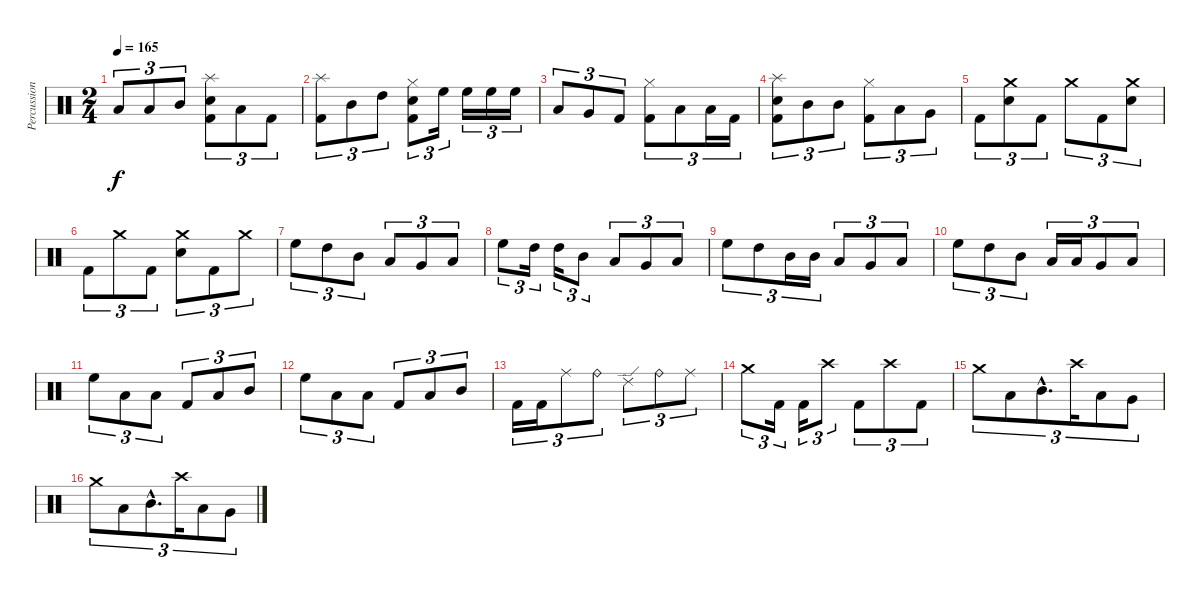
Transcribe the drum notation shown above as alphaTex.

\track ("Percussion" "Percussion") {instrument percussion}
\staff {score}
\articulation defaults
\ts (2 4)
\tempo 165
\clef neutral
\ks c "Low Tom (hit)".8{tu (3 2) dy f} "Low Tom (hit)".8{tu (3 2)} "Mid Tom (hit)".8{tu (3 2)}
("Splash (hit)" "Snare (hit) 2" "Kick (hit) 2").8{tu (3 2)} "Low Tom (hit)".8{tu (3 2)} "Kick (hit) 2".8{tu (3 2)} |
("Splash (hit)" "Kick (hit) 2").8{tu (3 2)} "Mid Tom (hit)".8{tu (3 2)} "High Tom (hit)".8{tu (3 2)} ("Hi-Hat (closed)" "Snare (hit) 2" "Kick (hit) 2").8{tu (3 2)} "High Floor Tom (hit)".16{tu (3 2)} "High Floor Tom (hit)".16{tu (3 2)} "High Floor Tom (hit)".16{tu (3 2)} "High Floor Tom (hit)".16{tu (3 2)} |
"Low Tom (hit)".8{tu (3 2)} "Very Low Tom (hit)".8{tu (3 2)} "Kick (hit) 2".8{tu (3 2)} ("Hi-Hat (closed)" "Kick (hit) 2").8{tu (3 2)} "Low Tom (hit)".8{tu (3 2)} "Low Tom (hit)".16{tu (3 2)} "Kick (hit) 2".16{tu (3 2)} |
("Splash (hit)" "Snare (hit) 2" "Kick (hit) 2").8{tu (3 2)} "Mid Tom (hit)".8{tu (3 2)} "Mid Tom (hit)".8{tu (3 2)} ("Hi-Hat (closed)" "Kick (hit) 2").8{tu (3 2)} "Low Tom (hit)".8{tu (3 2)} "Very Low Tom (hit)".8{tu (3 2)} |
"Kick (hit) 2".8{tu (3 2)} ("Crash medium (hit)" "Snare (hit) 2").8{tu (3 2)} "Kick (hit) 2".8{tu (3 2)} "Crash medium (hit)".8{tu (3 2)} "Kick (hit) 2".8{tu (3 2)} ("Crash medium (hit)" "Snare (hit) 2").8{tu (3 2)} |
"Kick (hit) 2".8{tu (3 2)} "Crash medium (hit)".8{tu (3 2)} "Kick (hit) 2".8{tu (3 2)} ("Crash medium (hit)" "Snare (hit) 2").8{tu (3 2)} "Kick (hit) 2".8{tu (3 2)} "Crash medium (hit)".8{tu (3 2)} |
"High Floor Tom (hit)".8{tu (3 2)} "High Tom (hit)".8{tu (3 2)} "Mid Tom (hit)".8{tu (3 2)} "Low Tom (hit)".8{tu (3 2)} "Very Low Tom (hit)".8{tu (3 2)} "Low Floor Tom (hit)".8{tu (3 2)} |
"High Floor Tom (hit)".8{tu (3 2)} "High Tom (hit)".16{tu (3 2)} "High Tom (hit)".16{tu (3 2)} "Mid Tom (hit)".8{tu (3 2)} "Low Tom (hit)".8{tu (3 2)} "Very Low Tom (hit)".8{tu (3 2)} "Low Floor Tom (hit)".8{tu (3 2)} |
"High Floor Tom (hit)".8{tu (3 2)} "High Tom (hit)".8{tu (3 2)} "Mid Tom (hit)".16{tu (3 2)} "Mid Tom (hit)".16{tu (3 2)} "Low Tom (hit)".8{tu (3 2)} "Very Low Tom (hit)".8{tu (3 2)} "Low Floor Tom (hit)".8{tu (3 2)} |
"High Floor Tom (hit)".8{tu (3 2)} "High Tom (hit)".8{tu (3 2)} "Mid Tom (hit)".8{tu (3 2)} "Low Tom (hit)".16{tu (3 2)} "Low Tom (hit)".16{tu (3 2)} "Very Low Tom (hit)".8{tu (3 2)} "Low Floor Tom (hit)".8{tu (3 2)} |
"High Floor Tom (hit)".8{tu (3 2)} "Low Tom (hit)".8{tu (3 2)} "Low Tom (hit)".8{tu (3 2)} "Kick (hit) 2".8{tu (3 2)} "Low Tom (hit)".8{tu (3 2)} "Mid Tom (hit)".8{tu (3 2)} |
"High Floor Tom (hit)".8{tu (3 2)} "Low Tom (hit)".8{tu (3 2)} "Low Tom (hit)".8{tu (3 2)} "Kick (hit) 2".8{tu (3 2)} "Low Tom (hit)".8{tu (3 2)} "Mid Tom (hit)".8{tu (3 2)} |
"Kick (hit) 2".16{tu (3 2)} "Kick (hit) 2".16{tu (3 2)} "Ride (middle)".8{tu (3 2)} "Ride (bell)".8{tu (3 2)} "Ride (edge) 2".8{tu (3 2)} "Ride (bell)".8{tu (3 2)} "Ride (middle)".8{tu (3 2)} |
"Crash medium (hit)".8{tu (3 2)} "Kick (hit) 2".16{tu (3 2)} "Kick (hit) 2".16{tu (3 2)} "Crash high (hit)".8{tu (3 2)} "Kick (hit) 2".8{tu (3 2)} "Crash high (hit)".8{tu (3 2)} "Kick (hit) 2".8{tu (3 2)} |
"Crash medium (hit)".8{tu (3 2)} "Low Tom (hit)".8{tu (3 2)} "Mid Tom (hit)"{hac}.8{d tu (3 2)} "Crash high (hit)".16{tu (3 2)} "Low Tom (hit)".8{tu (3 2)} "Very Low Tom (hit)".8{tu (3 2)} |
"Crash medium (hit)".8{tu (3 2)} "Low Tom (hit)".8{tu (3 2)} "Mid Tom (hit)"{hac}.8{d tu (3 2)} "Crash high (hit)".16{tu (3 2)} "Low Tom (hit)".8{tu (3 2)} "Very Low Tom (hit)".8{tu (3 2)}
